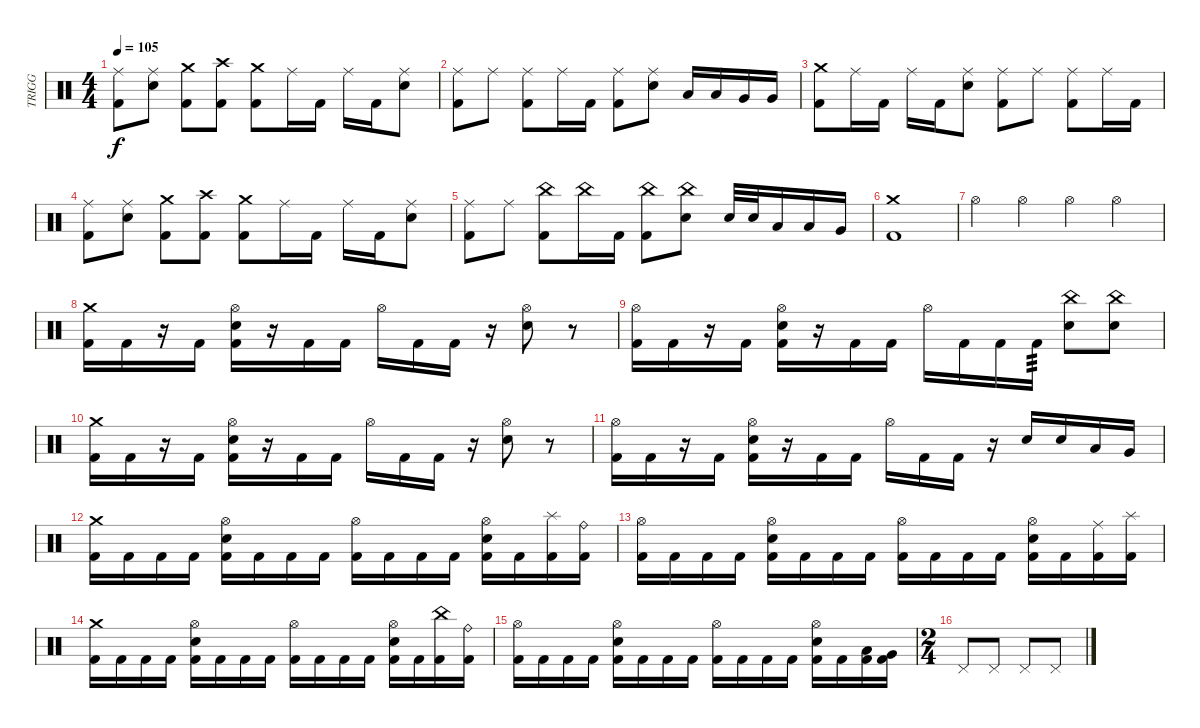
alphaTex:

\track ("TRIGG" "TRIGG") {instrument percussion}
\staff {score}
\articulation defaults
\ts (4 4)
\tempo 105
\clef neutral
\ks c
("Ride (middle)" "Kick (hit) 2").8{dy f} ("Ride (middle)" "Electric Snare (hit)").8 ("Crash medium (hit)" "Kick (hit) 2").8 ("Crash high (hit)" "Kick (hit) 2").8 ("Crash medium (hit)" "Kick (hit) 2").8 "Ride (middle)".16 "Kick (hit) 2".16 "Ride (middle)".16 "Kick (hit) 2".16 ("Ride (middle)" "Electric Snare (hit)").8 |
("Ride (middle)" "Kick (hit) 2").8 "Ride (middle)".8 ("Ride (middle)" "Kick (hit) 2").8 "Ride (middle)".16 "Kick (hit) 2".16 ("Ride (middle)" "Kick (hit) 2").8 ("Ride (middle)" "Electric Snare (hit)").8 "Low Tom (hit)".16 "Low Tom (hit)".16 "Very Low Tom (hit)".16 "Very Low Tom (hit)".16 |
("Crash medium (hit)" "Kick (hit) 2").8 "Ride (middle)".16 "Kick (hit) 2".16 "Ride (middle)".16 "Kick (hit) 2".16 ("Ride (middle)" "Electric Snare (hit)").8 ("Ride (middle)" "Kick (hit) 2").8 "Ride (middle)".8 ("Ride (middle)" "Kick (hit) 2").8 "Ride (middle)".16 "Kick (hit) 2".16 |
("Ride (middle)" "Kick (hit) 2").8 ("Ride (middle)" "Electric Snare (hit)").8 ("Crash medium (hit)" "Kick (hit) 2").8 ("Crash high (hit)" "Kick (hit) 2").8 ("Crash medium (hit)" "Kick (hit) 2").8 "Ride (middle)".16 "Kick (hit) 2".16 "Ride (middle)".16 "Kick (hit) 2".16 ("Ride (middle)" "Electric Snare (hit)").8 |
("Ride (middle)" "Kick (hit) 2").8 "Ride (middle)".8 ("China (hit)" "Kick (hit) 2").8 "China (hit)".16 "Kick (hit) 2".16 ("China (hit)" "Kick (hit) 2").8 ("China (hit)" "Electric Snare (hit)").8 "Electric Snare (hit)".32 "Electric Snare (hit)".32 "Low Tom (hit)".16 "Low Tom (hit)".16 "Very Low Tom (hit)".16 |
("Crash medium (hit)" "Kick (hit) 2").1 |
"Hi-Hat (open)".4 "Hi-Hat (open)".4 "Hi-Hat (open)".4 "Hi-Hat (open)".4 |
("Crash medium (hit)" "Kick (hit) 2").16 "Kick (hit) 2".16 r.16 "Kick (hit) 2".16 ("Hi-Hat (open)" "Electric Snare (hit)" "Kick (hit) 2").16 r.16 "Kick (hit) 2".16 "Kick (hit) 2".16 "Hi-Hat (open)".16 "Kick (hit) 2".16 "Kick (hit) 2".16 r.16 ("Hi-Hat (open)" "Electric Snare (hit)").8 r.8 |
("Hi-Hat (open)" "Kick (hit) 2").16 "Kick (hit) 2".16 r.16 "Kick (hit) 2".16 ("Hi-Hat (open)" "Electric Snare (hit)" "Kick (hit) 2").16 r.16 "Kick (hit) 2".16 "Kick (hit) 2".16 "Hi-Hat (open)".16 "Kick (hit) 2".16 "Kick (hit) 2".16 "Kick (hit) 2".16{tp 3} ("China (hit)" "Electric Snare (hit)").8 ("China (hit)" "Electric Snare (hit)").8 |
("Crash medium (hit)" "Kick (hit) 2").16 "Kick (hit) 2".16 r.16 "Kick (hit) 2".16 ("Hi-Hat (open)" "Electric Snare (hit)" "Kick (hit) 2").16 r.16 "Kick (hit) 2".16 "Kick (hit) 2".16 "Hi-Hat (open)".16 "Kick (hit) 2".16 "Kick (hit) 2".16 r.16 ("Hi-Hat (open)" "Electric Snare (hit)").8 r.8 |
("Hi-Hat (open)" "Kick (hit) 2").16 "Kick (hit) 2".16 r.16 "Kick (hit) 2".16 ("Hi-Hat (open)" "Electric Snare (hit)" "Kick (hit) 2").16 r.16 "Kick (hit) 2".16 "Kick (hit) 2".16 "Hi-Hat (open)".16 "Kick (hit) 2".16 "Kick (hit) 2".16 r.16 "Electric Snare (hit)".16 "Electric Snare (hit)".16 "Low Tom (hit)".16 "Very Low Tom (hit)".16 |
("Crash medium (hit)" "Kick (hit) 2").16 "Kick (hit) 2".16 "Kick (hit) 2".16 "Kick (hit) 2".16 ("Hi-Hat (open)" "Electric Snare (hit)" "Kick (hit) 2").16 "Kick (hit) 2".16 "Kick (hit) 2".16 "Kick (hit) 2".16 ("Hi-Hat (open)" "Kick (hit) 2").16 "Kick (hit) 2".16 "Kick (hit) 2".16 "Kick (hit) 2".16 ("Hi-Hat (open)" "Electric Snare (hit)" "Kick (hit) 2").16 "Kick (hit) 2".16 ("Splash (hit)" "Kick (hit) 2").16 ("Ride (bell)" "Kick (hit) 2").16 |
("Hi-Hat (open)" "Kick (hit) 2").16 "Kick (hit) 2".16 "Kick (hit) 2".16 "Kick (hit) 2".16 ("Hi-Hat (open)" "Electric Snare (hit)" "Kick (hit) 2").16 "Kick (hit) 2".16 "Kick (hit) 2".16 "Kick (hit) 2".16 ("Hi-Hat (open)" "Kick (hit) 2").16 "Kick (hit) 2".16 "Kick (hit) 2".16 "Kick (hit) 2".16 ("Hi-Hat (open)" "Electric Snare (hit)" "Kick (hit) 2").16 "Kick (hit) 2".16 ("Ride (middle)" "Kick (hit) 2").16 ("Splash (hit)" "Kick (hit) 2").16 |
("Crash medium (hit)" "Kick (hit) 2").16 "Kick (hit) 2".16 "Kick (hit) 2".16 "Kick (hit) 2".16 ("Hi-Hat (open)" "Electric Snare (hit)" "Kick (hit) 2").16 "Kick (hit) 2".16 "Kick (hit) 2".16 "Kick (hit) 2".16 ("Hi-Hat (open)" "Kick (hit) 2").16 "Kick (hit) 2".16 "Kick (hit) 2".16 "Kick (hit) 2".16 ("Hi-Hat (open)" "Electric Snare (hit)" "Kick (hit) 2").16 "Kick (hit) 2".16 ("China (hit)" "Kick (hit) 2").16 ("Ride (bell)" "Kick (hit) 2").16 |
("Hi-Hat (open)" "Kick (hit) 2").16 "Kick (hit) 2".16 "Kick (hit) 2".16 "Kick (hit) 2".16 ("Hi-Hat (open)" "Electric Snare (hit)" "Kick (hit) 2").16 "Kick (hit) 2".16 "Kick (hit) 2".16 "Kick (hit) 2".16 ("Hi-Hat (open)" "Kick (hit) 2").16 "Kick (hit) 2".16 "Kick (hit) 2".16 "Kick (hit) 2".16 ("Hi-Hat (open)" "Electric Snare (hit)" "Kick (hit) 2").16 "Kick (hit) 2".16 ("Low Tom (hit)" "Kick (hit) 2").16 ("Very Low Tom (hit)" "Kick (hit) 2").16 |
\ts (2 4)
"Pedal Hi-Hat (hit)".8 "Pedal Hi-Hat (hit)".8 "Pedal Hi-Hat (hit)".8 "Pedal Hi-Hat (hit)".8
